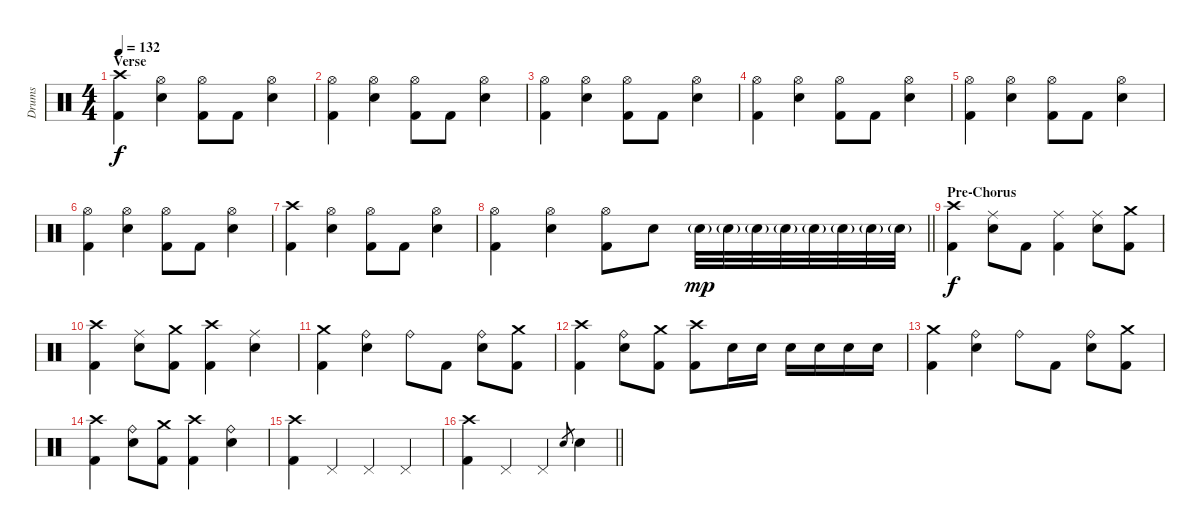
\track ("Drums" "Drums") {instrument percussion}
\staff {score}
\articulation defaults
\ts (4 4)
\section ("" "Verse")
\tempo 132
\clef neutral
\ks c
("Crash high (hit)" "Kick (hit) 2").4{dy f} ("Hi-Hat (open)" "Snare (hit) 2").4 ("Hi-Hat (open)" "Kick (hit) 2").8 "Kick (hit) 2".8 ("Hi-Hat (open)" "Snare (hit) 2").4 |
("Hi-Hat (open)" "Kick (hit) 2").4 ("Hi-Hat (open)" "Snare (hit) 2").4 ("Hi-Hat (open)" "Kick (hit) 2").8 "Kick (hit) 2".8 ("Hi-Hat (open)" "Snare (hit) 2").4 |
("Hi-Hat (open)" "Kick (hit) 2").4 ("Hi-Hat (open)" "Snare (hit) 2").4 ("Hi-Hat (open)" "Kick (hit) 2").8 "Kick (hit) 2".8 ("Hi-Hat (open)" "Snare (hit) 2").4 |
("Hi-Hat (open)" "Kick (hit) 2").4 ("Hi-Hat (open)" "Snare (hit) 2").4 ("Hi-Hat (open)" "Kick (hit) 2").8 "Kick (hit) 2".8 ("Hi-Hat (open)" "Snare (hit) 2").4 |
("Hi-Hat (open)" "Kick (hit) 2").4 ("Hi-Hat (open)" "Snare (hit) 2").4 ("Hi-Hat (open)" "Kick (hit) 2").8 "Kick (hit) 2".8 ("Hi-Hat (open)" "Snare (hit) 2").4 |
("Hi-Hat (open)" "Kick (hit) 2").4 ("Hi-Hat (open)" "Snare (hit) 2").4 ("Hi-Hat (open)" "Kick (hit) 2").8 "Kick (hit) 2".8 ("Hi-Hat (open)" "Snare (hit) 2").4 |
("Crash high (hit)" "Kick (hit) 2").4 ("Hi-Hat (open)" "Snare (hit) 2").4 ("Hi-Hat (open)" "Kick (hit) 2").8 "Kick (hit) 2".8 ("Hi-Hat (open)" "Snare (hit) 2").4 |
\barLineRight lightlight
("Hi-Hat (open)" "Kick (hit) 2").4 ("Hi-Hat (open)" "Snare (hit) 2").4 ("Hi-Hat (open)" "Kick (hit) 2").8 "Snare (hit) 2".8 "Snare (hit) 2"{g}.32{dy mp} "Snare (hit) 2"{g}.32 "Snare (hit) 2"{g}.32 "Snare (hit) 2"{g}.32 "Snare (hit) 2"{g}.32 "Snare (hit) 2"{g}.32 "Snare (hit) 2"{g}.32 "Snare (hit) 2"{g}.32 |
\section ("" "Pre-Chorus")
("Crash high (hit)" "Kick (hit) 2").4{dy f} ("Ride (middle)" "Snare (hit) 2").8 "Kick (hit) 2".8 ("Ride (middle)" "Kick (hit) 2").4 ("Ride (middle)" "Snare (hit) 2").8 ("Crash medium (hit)" "Kick (hit) 2").8 |
("Crash high (hit)" "Kick (hit) 2").4 ("Ride (middle)" "Snare (hit) 2").8 ("Crash medium (hit)" "Kick (hit) 2").8 ("Crash high (hit)" "Kick (hit) 2").4 ("Ride (middle)" "Snare (hit) 2").4 |
("Crash medium (hit)" "Kick (hit) 2").4 ("Ride (bell)" "Snare (hit) 2").4 "Ride (bell)".8 "Kick (hit) 2".8 ("Ride (bell)" "Snare (hit) 2").8 ("Crash medium (hit)" "Kick (hit) 2").8 |
("Crash high (hit)" "Kick (hit) 2").4 ("Ride (bell)" "Snare (hit) 2").8 ("Crash medium (hit)" "Kick (hit) 2").8 ("Crash high (hit)" "Kick (hit) 2").8 "Snare (hit) 2".16 "Snare (hit) 2".16 "Snare (hit) 2".16 "Snare (hit) 2".16 "Snare (hit) 2".16 "Snare (hit) 2".16 |
("Crash medium (hit)" "Kick (hit) 2").4 ("Ride (bell)" "Snare (hit) 2").4 "Ride (bell)".8 "Kick (hit) 2".8 ("Ride (bell)" "Snare (hit) 2").8 ("Crash medium (hit)" "Kick (hit) 2").8 |
("Crash high (hit)" "Kick (hit) 2").4 ("Ride (bell)" "Snare (hit) 2").8 ("Crash medium (hit)" "Kick (hit) 2").8 ("Crash high (hit)" "Kick (hit) 2").4 ("Ride (bell)" "Snare (hit) 2").4 |
("Crash high (hit)" "Kick (hit) 2").4 "Pedal Hi-Hat (hit)".4 "Pedal Hi-Hat (hit)".4 "Pedal Hi-Hat (hit)".4 |
\barLineRight lightlight
("Crash high (hit)" "Kick (hit) 2").4 "Pedal Hi-Hat (hit)".4 "Pedal Hi-Hat (hit)".4 "Snare (hit) 2".8{gr} "Snare (hit) 2".4
